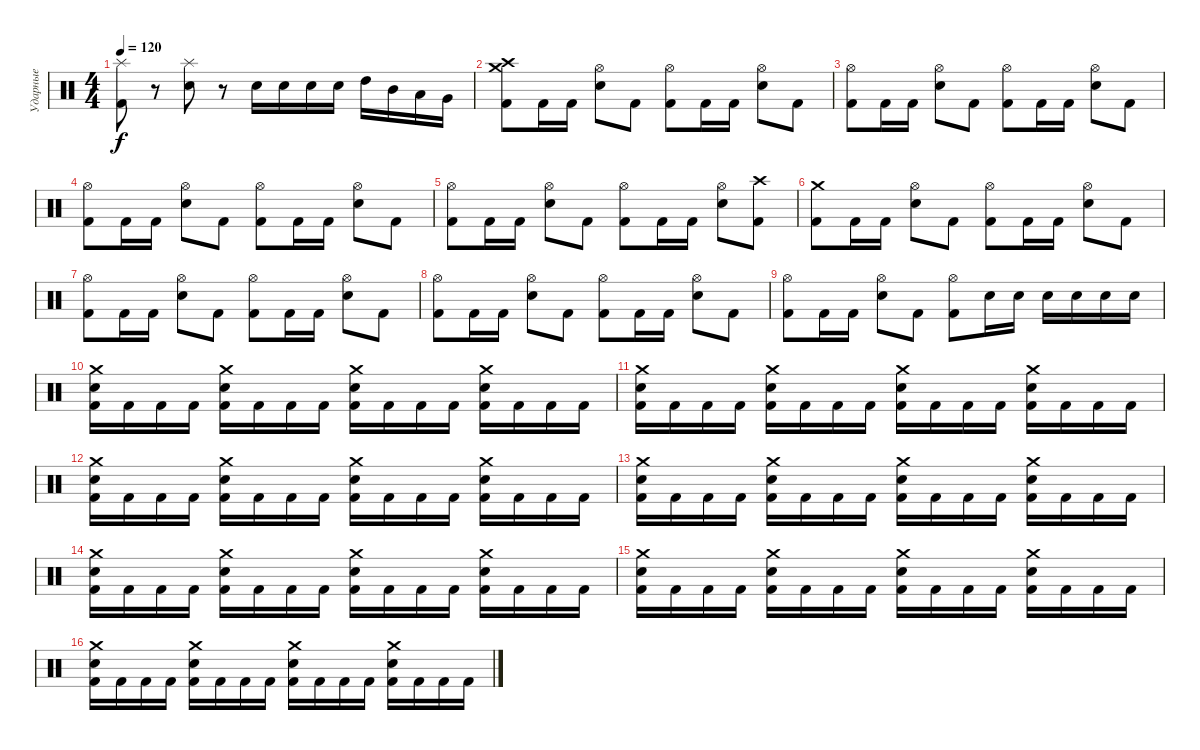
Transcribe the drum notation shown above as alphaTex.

\track ("Ударные" "Ударные") {instrument percussion}
\staff {score}
\articulation defaults
\ts (4 4)
\tempo 120
\clef neutral
\ks c
("Splash (hit)" "Kick (hit) 2").8{dy f} r.8 ("Splash (hit)" "Electric Snare (hit)").8 r.8 "Electric Snare (hit)".16 "Electric Snare (hit)".16 "Electric Snare (hit)".16 "Electric Snare (hit)".16 "High Tom (hit)".16 "Mid Tom (hit)".16 "Low Tom (hit)".16 "Very Low Tom (hit)".16 |
("Crash medium (hit)" "Crash high (hit)" "Kick (hit) 2").8 "Kick (hit) 2".16 "Kick (hit) 2".16 ("Hi-Hat (open)" "Electric Snare (hit)").8 "Kick (hit) 2".8 ("Hi-Hat (open)" "Kick (hit) 2").8 "Kick (hit) 2".16 "Kick (hit) 2".16 ("Hi-Hat (open)" "Electric Snare (hit)").8 "Kick (hit) 2".8 |
("Hi-Hat (open)" "Kick (hit) 2").8 "Kick (hit) 2".16 "Kick (hit) 2".16 ("Hi-Hat (open)" "Electric Snare (hit)").8 "Kick (hit) 2".8 ("Hi-Hat (open)" "Kick (hit) 2").8 "Kick (hit) 2".16 "Kick (hit) 2".16 ("Hi-Hat (open)" "Electric Snare (hit)").8 "Kick (hit) 2".8 |
("Hi-Hat (open)" "Kick (hit) 2").8 "Kick (hit) 2".16 "Kick (hit) 2".16 ("Hi-Hat (open)" "Electric Snare (hit)").8 "Kick (hit) 2".8 ("Hi-Hat (open)" "Kick (hit) 2").8 "Kick (hit) 2".16 "Kick (hit) 2".16 ("Hi-Hat (open)" "Electric Snare (hit)").8 "Kick (hit) 2".8 |
("Hi-Hat (open)" "Kick (hit) 2").8 "Kick (hit) 2".16 "Kick (hit) 2".16 ("Hi-Hat (open)" "Electric Snare (hit)").8 "Kick (hit) 2".8 ("Hi-Hat (open)" "Kick (hit) 2").8 "Kick (hit) 2".16 "Kick (hit) 2".16 ("Hi-Hat (open)" "Electric Snare (hit)").8 ("Crash high (hit)" "Kick (hit) 2").8 |
("Crash medium (hit)" "Kick (hit) 2").8 "Kick (hit) 2".16 "Kick (hit) 2".16 ("Hi-Hat (open)" "Electric Snare (hit)").8 "Kick (hit) 2".8 ("Hi-Hat (open)" "Kick (hit) 2").8 "Kick (hit) 2".16 "Kick (hit) 2".16 ("Hi-Hat (open)" "Electric Snare (hit)").8 "Kick (hit) 2".8 |
("Hi-Hat (open)" "Kick (hit) 2").8 "Kick (hit) 2".16 "Kick (hit) 2".16 ("Hi-Hat (open)" "Electric Snare (hit)").8 "Kick (hit) 2".8 ("Hi-Hat (open)" "Kick (hit) 2").8 "Kick (hit) 2".16 "Kick (hit) 2".16 ("Hi-Hat (open)" "Electric Snare (hit)").8 "Kick (hit) 2".8 |
("Hi-Hat (open)" "Kick (hit) 2").8 "Kick (hit) 2".16 "Kick (hit) 2".16 ("Hi-Hat (open)" "Electric Snare (hit)").8 "Kick (hit) 2".8 ("Hi-Hat (open)" "Kick (hit) 2").8 "Kick (hit) 2".16 "Kick (hit) 2".16 ("Hi-Hat (open)" "Electric Snare (hit)").8 "Kick (hit) 2".8 |
("Hi-Hat (open)" "Kick (hit) 2").8 "Kick (hit) 2".16 "Kick (hit) 2".16 ("Hi-Hat (open)" "Electric Snare (hit)").8 "Kick (hit) 2".8 ("Hi-Hat (open)" "Kick (hit) 2").8 "Electric Snare (hit)".16 "Electric Snare (hit)".16 "Electric Snare (hit)".16 "Electric Snare (hit)".16 "Electric Snare (hit)".16 "Electric Snare (hit)".16 |
("Crash medium (hit)" "Electric Snare (hit)" "Kick (hit) 2").16 "Kick (hit) 2".16 "Kick (hit) 2".16 "Kick (hit) 2".16 ("Crash medium (hit)" "Electric Snare (hit)" "Kick (hit) 2").16 "Kick (hit) 2".16 "Kick (hit) 2".16 "Kick (hit) 2".16 ("Crash medium (hit)" "Electric Snare (hit)" "Kick (hit) 2").16 "Kick (hit) 2".16 "Kick (hit) 2".16 "Kick (hit) 2".16 ("Crash medium (hit)" "Electric Snare (hit)" "Kick (hit) 2").16 "Kick (hit) 2".16 "Kick (hit) 2".16 "Kick (hit) 2".16 |
("Crash medium (hit)" "Electric Snare (hit)" "Kick (hit) 2").16 "Kick (hit) 2".16 "Kick (hit) 2".16 "Kick (hit) 2".16 ("Crash medium (hit)" "Electric Snare (hit)" "Kick (hit) 2").16 "Kick (hit) 2".16 "Kick (hit) 2".16 "Kick (hit) 2".16 ("Crash medium (hit)" "Electric Snare (hit)" "Kick (hit) 2").16 "Kick (hit) 2".16 "Kick (hit) 2".16 "Kick (hit) 2".16 ("Crash medium (hit)" "Electric Snare (hit)" "Kick (hit) 2").16 "Kick (hit) 2".16 "Kick (hit) 2".16 "Kick (hit) 2".16 |
("Crash medium (hit)" "Electric Snare (hit)" "Kick (hit) 2").16 "Kick (hit) 2".16 "Kick (hit) 2".16 "Kick (hit) 2".16 ("Crash medium (hit)" "Electric Snare (hit)" "Kick (hit) 2").16 "Kick (hit) 2".16 "Kick (hit) 2".16 "Kick (hit) 2".16 ("Crash medium (hit)" "Electric Snare (hit)" "Kick (hit) 2").16 "Kick (hit) 2".16 "Kick (hit) 2".16 "Kick (hit) 2".16 ("Crash medium (hit)" "Electric Snare (hit)" "Kick (hit) 2").16 "Kick (hit) 2".16 "Kick (hit) 2".16 "Kick (hit) 2".16 |
("Crash medium (hit)" "Electric Snare (hit)" "Kick (hit) 2").16 "Kick (hit) 2".16 "Kick (hit) 2".16 "Kick (hit) 2".16 ("Crash medium (hit)" "Electric Snare (hit)" "Kick (hit) 2").16 "Kick (hit) 2".16 "Kick (hit) 2".16 "Kick (hit) 2".16 ("Crash medium (hit)" "Electric Snare (hit)" "Kick (hit) 2").16 "Kick (hit) 2".16 "Kick (hit) 2".16 "Kick (hit) 2".16 ("Crash medium (hit)" "Electric Snare (hit)" "Kick (hit) 2").16 "Kick (hit) 2".16 "Kick (hit) 2".16 "Kick (hit) 2".16 |
("Crash medium (hit)" "Electric Snare (hit)" "Kick (hit) 2").16 "Kick (hit) 2".16 "Kick (hit) 2".16 "Kick (hit) 2".16 ("Crash medium (hit)" "Electric Snare (hit)" "Kick (hit) 2").16 "Kick (hit) 2".16 "Kick (hit) 2".16 "Kick (hit) 2".16 ("Crash medium (hit)" "Electric Snare (hit)" "Kick (hit) 2").16 "Kick (hit) 2".16 "Kick (hit) 2".16 "Kick (hit) 2".16 ("Crash medium (hit)" "Electric Snare (hit)" "Kick (hit) 2").16 "Kick (hit) 2".16 "Kick (hit) 2".16 "Kick (hit) 2".16 |
("Crash medium (hit)" "Electric Snare (hit)" "Kick (hit) 2").16 "Kick (hit) 2".16 "Kick (hit) 2".16 "Kick (hit) 2".16 ("Crash medium (hit)" "Electric Snare (hit)" "Kick (hit) 2").16 "Kick (hit) 2".16 "Kick (hit) 2".16 "Kick (hit) 2".16 ("Crash medium (hit)" "Electric Snare (hit)" "Kick (hit) 2").16 "Kick (hit) 2".16 "Kick (hit) 2".16 "Kick (hit) 2".16 ("Crash medium (hit)" "Electric Snare (hit)" "Kick (hit) 2").16 "Kick (hit) 2".16 "Kick (hit) 2".16 "Kick (hit) 2".16 |
("Crash medium (hit)" "Electric Snare (hit)" "Kick (hit) 2").16 "Kick (hit) 2".16 "Kick (hit) 2".16 "Kick (hit) 2".16 ("Crash medium (hit)" "Electric Snare (hit)" "Kick (hit) 2").16 "Kick (hit) 2".16 "Kick (hit) 2".16 "Kick (hit) 2".16 ("Crash medium (hit)" "Electric Snare (hit)" "Kick (hit) 2").16 "Kick (hit) 2".16 "Kick (hit) 2".16 "Kick (hit) 2".16 ("Crash medium (hit)" "Electric Snare (hit)" "Kick (hit) 2").16 "Kick (hit) 2".16 "Kick (hit) 2".16 "Kick (hit) 2".16
